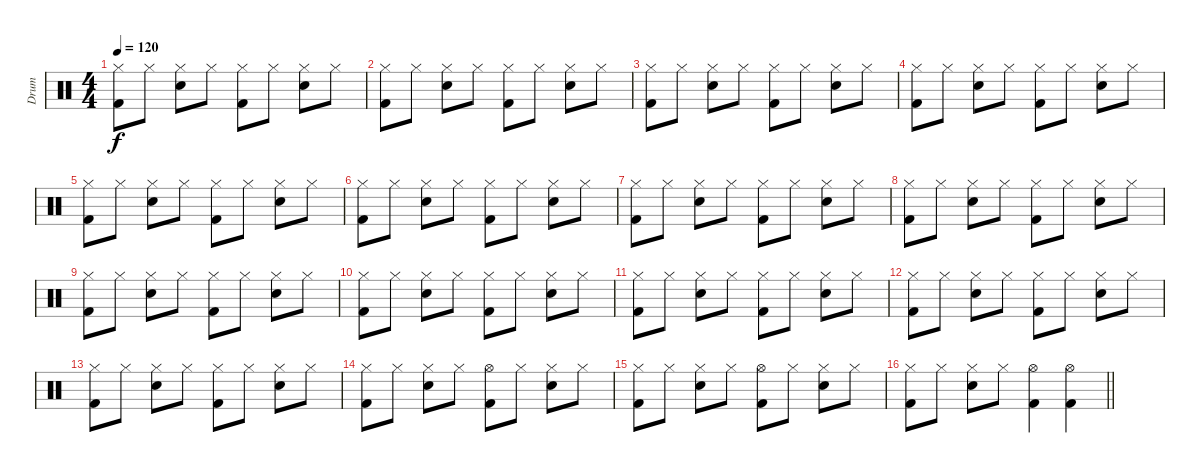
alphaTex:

\track ("Drum" "Drum") {instrument percussion}
\staff {score}
\articulation defaults
\ts (4 4)
\section ("" "")
\tempo 120
\clef neutral
\ks c
("Hi-Hat (closed)" "Kick (hit) 2").8{dy f} "Hi-Hat (closed)".8 ("Hi-Hat (closed)" "Snare (hit) 2").8 "Hi-Hat (closed)".8 ("Hi-Hat (closed)" "Kick (hit) 2").8 "Hi-Hat (closed)".8 ("Hi-Hat (closed)" "Snare (hit) 2").8 "Hi-Hat (closed)".8 |
("Hi-Hat (closed)" "Kick (hit) 2").8 "Hi-Hat (closed)".8 ("Hi-Hat (closed)" "Snare (hit) 2").8 "Hi-Hat (closed)".8 ("Hi-Hat (closed)" "Kick (hit) 2").8 "Hi-Hat (closed)".8 ("Hi-Hat (closed)" "Snare (hit) 2").8 "Hi-Hat (closed)".8 |
("Hi-Hat (closed)" "Kick (hit) 2").8 "Hi-Hat (closed)".8 ("Hi-Hat (closed)" "Snare (hit) 2").8 "Hi-Hat (closed)".8 ("Hi-Hat (closed)" "Kick (hit) 2").8 "Hi-Hat (closed)".8 ("Hi-Hat (closed)" "Snare (hit) 2").8 "Hi-Hat (closed)".8 |
("Hi-Hat (closed)" "Kick (hit) 2").8 "Hi-Hat (closed)".8 ("Hi-Hat (closed)" "Snare (hit) 2").8 "Hi-Hat (closed)".8 ("Hi-Hat (closed)" "Kick (hit) 2").8 "Hi-Hat (closed)".8 ("Hi-Hat (closed)" "Snare (hit) 2").8 "Hi-Hat (closed)".8 |
("Hi-Hat (closed)" "Kick (hit) 2").8 "Hi-Hat (closed)".8 ("Hi-Hat (closed)" "Snare (hit) 2").8 "Hi-Hat (closed)".8 ("Hi-Hat (closed)" "Kick (hit) 2").8 "Hi-Hat (closed)".8 ("Hi-Hat (closed)" "Snare (hit) 2").8 "Hi-Hat (closed)".8 |
("Hi-Hat (closed)" "Kick (hit) 2").8 "Hi-Hat (closed)".8 ("Hi-Hat (closed)" "Snare (hit) 2").8 "Hi-Hat (closed)".8 ("Hi-Hat (closed)" "Kick (hit) 2").8 "Hi-Hat (closed)".8 ("Hi-Hat (closed)" "Snare (hit) 2").8 "Hi-Hat (closed)".8 |
("Hi-Hat (closed)" "Kick (hit) 2").8 "Hi-Hat (closed)".8 ("Hi-Hat (closed)" "Snare (hit) 2").8 "Hi-Hat (closed)".8 ("Hi-Hat (closed)" "Kick (hit) 2").8 "Hi-Hat (closed)".8 ("Hi-Hat (closed)" "Snare (hit) 2").8 "Hi-Hat (closed)".8 |
("Hi-Hat (closed)" "Kick (hit) 2").8 "Hi-Hat (closed)".8 ("Hi-Hat (closed)" "Snare (hit) 2").8 "Hi-Hat (closed)".8 ("Hi-Hat (closed)" "Kick (hit) 2").8 "Hi-Hat (closed)".8 ("Hi-Hat (closed)" "Snare (hit) 2").8 "Hi-Hat (closed)".8 |
("Hi-Hat (closed)" "Kick (hit) 2").8 "Hi-Hat (closed)".8 ("Hi-Hat (closed)" "Snare (hit) 2").8 "Hi-Hat (closed)".8 ("Hi-Hat (closed)" "Kick (hit) 2").8 "Hi-Hat (closed)".8 ("Hi-Hat (closed)" "Snare (hit) 2").8 "Hi-Hat (closed)".8 |
("Hi-Hat (closed)" "Kick (hit) 2").8 "Hi-Hat (closed)".8 ("Hi-Hat (closed)" "Snare (hit) 2").8 "Hi-Hat (closed)".8 ("Hi-Hat (closed)" "Kick (hit) 2").8 "Hi-Hat (closed)".8 ("Hi-Hat (closed)" "Snare (hit) 2").8 "Hi-Hat (closed)".8 |
("Hi-Hat (closed)" "Kick (hit) 2").8 "Hi-Hat (closed)".8 ("Hi-Hat (closed)" "Snare (hit) 2").8 "Hi-Hat (closed)".8 ("Hi-Hat (closed)" "Kick (hit) 2").8 "Hi-Hat (closed)".8 ("Hi-Hat (closed)" "Snare (hit) 2").8 "Hi-Hat (closed)".8 |
("Hi-Hat (closed)" "Kick (hit) 2").8 "Hi-Hat (closed)".8 ("Hi-Hat (closed)" "Snare (hit) 2").8 "Hi-Hat (closed)".8 ("Hi-Hat (closed)" "Kick (hit) 2").8 "Hi-Hat (closed)".8 ("Hi-Hat (closed)" "Snare (hit) 2").8 "Hi-Hat (closed)".8 |
("Hi-Hat (closed)" "Kick (hit) 2").8 "Hi-Hat (closed)".8 ("Hi-Hat (closed)" "Snare (hit) 2").8 "Hi-Hat (closed)".8 ("Hi-Hat (closed)" "Kick (hit) 2").8 "Hi-Hat (closed)".8 ("Hi-Hat (closed)" "Snare (hit) 2").8 "Hi-Hat (closed)".8 |
("Hi-Hat (closed)" "Kick (hit) 2").8 "Hi-Hat (closed)".8 ("Hi-Hat (closed)" "Snare (hit) 2").8 "Hi-Hat (closed)".8 ("Hi-Hat (open)" "Kick (hit) 2").8 "Hi-Hat (closed)".8 ("Hi-Hat (closed)" "Snare (hit) 2").8 "Hi-Hat (closed)".8 |
("Hi-Hat (closed)" "Kick (hit) 2").8 "Hi-Hat (closed)".8 ("Hi-Hat (closed)" "Snare (hit) 2").8 "Hi-Hat (closed)".8 ("Hi-Hat (open)" "Kick (hit) 2").8 "Hi-Hat (closed)".8 ("Hi-Hat (closed)" "Snare (hit) 2").8 "Hi-Hat (closed)".8 |
\barLineRight lightlight
("Hi-Hat (closed)" "Kick (hit) 2").8 "Hi-Hat (closed)".8 ("Hi-Hat (closed)" "Snare (hit) 2").8 "Hi-Hat (closed)".8 ("Hi-Hat (open)" "Kick (hit) 2").4 ("Hi-Hat (open)" "Kick (hit) 2").4
